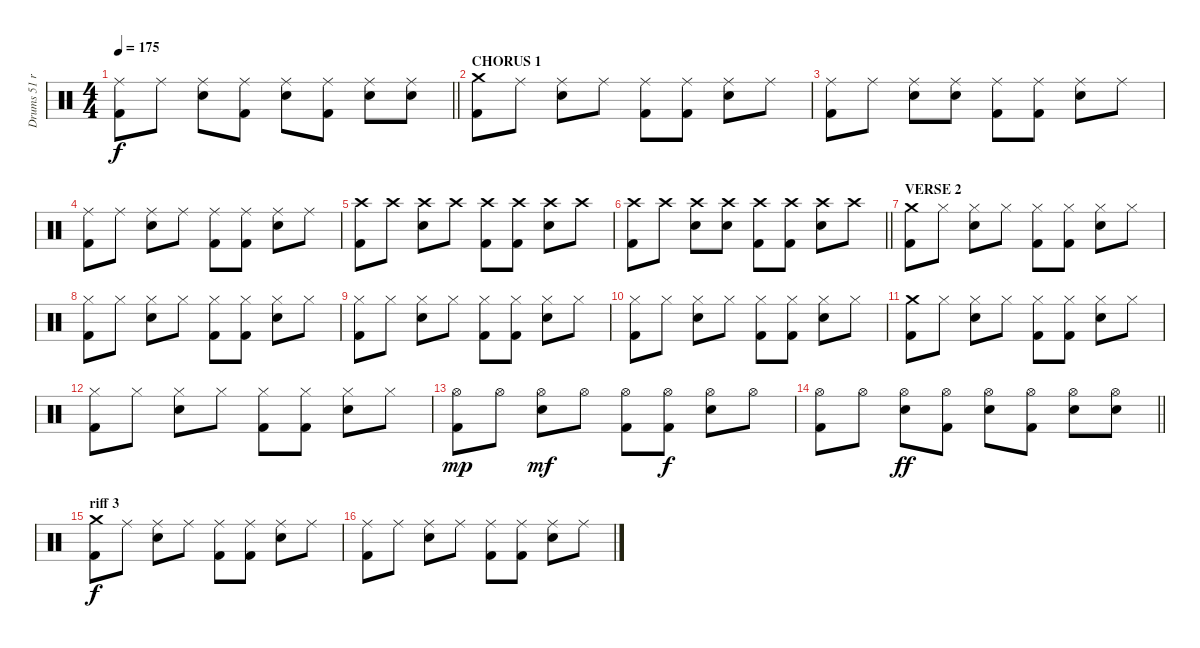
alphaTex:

\track ("Drums 51 ride" "Drums 51 r") {instrument percussion}
\staff {score}
\articulation defaults
\ts (4 4)
\tempo 175
\clef neutral
\barLineRight lightlight
\ks c
("Ride (middle)" "Kick (hit) 2").8{dy f} "Ride (middle)".8 ("Ride (middle)" "Snare (hit) 2").8 ("Ride (middle)" "Kick (hit) 2").8 ("Ride (middle)" "Snare (hit) 2").8 ("Ride (middle)" "Kick (hit) 2").8 ("Ride (middle)" "Snare (hit) 2").8 ("Ride (middle)" "Snare (hit) 2").8 |
\section ("" "CHORUS 1")
("Crash medium (hit)" "Kick (hit) 2").8 "Ride (middle)".8 ("Ride (middle)" "Snare (hit) 2").8 "Ride (middle)".8 ("Ride (middle)" "Kick (hit) 2").8 ("Ride (middle)" "Kick (hit) 2").8 ("Ride (middle)" "Snare (hit) 2").8 "Ride (middle)".8 |
("Ride (middle)" "Kick (hit) 2").8 "Ride (middle)".8 ("Ride (middle)" "Snare (hit) 2").8 ("Ride (middle)" "Snare (hit) 2").8 ("Ride (middle)" "Kick (hit) 2").8 ("Ride (middle)" "Kick (hit) 2").8 ("Ride (middle)" "Snare (hit) 2").8 "Ride (middle)".8 |
("Ride (middle)" "Kick (hit) 2").8 "Ride (middle)".8 ("Ride (middle)" "Snare (hit) 2").8 "Ride (middle)".8 ("Ride (middle)" "Kick (hit) 2").8 ("Ride (middle)" "Kick (hit) 2").8 ("Ride (middle)" "Snare (hit) 2").8 "Ride (middle)".8 |
("Crash high (hit)" "Kick (hit) 2").8 "Crash high (hit)".8 ("Crash high (hit)" "Snare (hit) 2").8 "Crash high (hit)".8 ("Crash high (hit)" "Kick (hit) 2").8 ("Crash high (hit)" "Kick (hit) 2").8 ("Crash high (hit)" "Snare (hit) 2").8 "Crash high (hit)".8 |
\barLineRight lightlight
("Crash high (hit)" "Kick (hit) 2").8 "Crash high (hit)".8 ("Crash high (hit)" "Snare (hit) 2").8 ("Crash high (hit)" "Snare (hit) 2").8 ("Crash high (hit)" "Kick (hit) 2").8 ("Crash high (hit)" "Kick (hit) 2").8 ("Crash high (hit)" "Snare (hit) 2").8 "Crash high (hit)".8 |
\section ("" "VERSE 2")
("Crash medium (hit)" "Kick (hit) 2").8 "Hi-Hat (closed)".8 ("Hi-Hat (closed)" "Snare (hit) 2").8 "Hi-Hat (closed)".8 ("Hi-Hat (closed)" "Kick (hit) 2").8 ("Hi-Hat (closed)" "Kick (hit) 2").8 ("Hi-Hat (closed)" "Snare (hit) 2").8 "Hi-Hat (closed)".8 |
("Hi-Hat (closed)" "Kick (hit) 2").8 "Hi-Hat (closed)".8 ("Hi-Hat (closed)" "Snare (hit) 2").8 "Hi-Hat (closed)".8 ("Hi-Hat (closed)" "Kick (hit) 2").8 ("Hi-Hat (closed)" "Kick (hit) 2").8 ("Hi-Hat (closed)" "Snare (hit) 2").8 "Hi-Hat (closed)".8 |
("Hi-Hat (closed)" "Kick (hit) 2").8 "Hi-Hat (closed)".8 ("Hi-Hat (closed)" "Snare (hit) 2").8 "Hi-Hat (closed)".8 ("Hi-Hat (closed)" "Kick (hit) 2").8 ("Hi-Hat (closed)" "Kick (hit) 2").8 ("Hi-Hat (closed)" "Snare (hit) 2").8 "Hi-Hat (closed)".8 |
("Hi-Hat (closed)" "Kick (hit) 2").8 "Hi-Hat (closed)".8 ("Hi-Hat (closed)" "Snare (hit) 2").8 "Hi-Hat (closed)".8 ("Hi-Hat (closed)" "Kick (hit) 2").8 ("Hi-Hat (closed)" "Kick (hit) 2").8 ("Hi-Hat (closed)" "Snare (hit) 2").8 "Hi-Hat (closed)".8 |
("Crash medium (hit)" "Kick (hit) 2").8 "Hi-Hat (closed)".8 ("Hi-Hat (closed)" "Snare (hit) 2").8 "Hi-Hat (closed)".8 ("Hi-Hat (closed)" "Kick (hit) 2").8 ("Hi-Hat (closed)" "Kick (hit) 2").8 ("Hi-Hat (closed)" "Snare (hit) 2").8 "Hi-Hat (closed)".8 |
("Hi-Hat (closed)" "Kick (hit) 2").8 "Hi-Hat (closed)".8 ("Hi-Hat (closed)" "Snare (hit) 2").8 "Hi-Hat (closed)".8 ("Hi-Hat (closed)" "Kick (hit) 2").8 ("Hi-Hat (closed)" "Kick (hit) 2").8 ("Hi-Hat (closed)" "Snare (hit) 2").8 "Hi-Hat (closed)".8 |
("Hi-Hat (open)" "Kick (hit) 2").8{dy mp} "Hi-Hat (open)".8 ("Hi-Hat (open)" "Snare (hit) 2").8{dy mf} "Hi-Hat (open)".8 ("Hi-Hat (open)" "Kick (hit) 2").8 ("Hi-Hat (open)" "Kick (hit) 2").8{dy f} ("Hi-Hat (open)" "Snare (hit) 2").8 "Hi-Hat (open)".8 |
\barLineRight lightlight
("Hi-Hat (open)" "Kick (hit) 2").8 "Hi-Hat (open)".8 ("Hi-Hat (open)" "Snare (hit) 2").8{dy ff} ("Hi-Hat (open)" "Kick (hit) 2").8 ("Hi-Hat (open)" "Snare (hit) 2").8 ("Hi-Hat (open)" "Kick (hit) 2").8 ("Hi-Hat (open)" "Snare (hit) 2").8 ("Hi-Hat (open)" "Snare (hit) 2").8 |
\section ("" "riff 3")
("Crash medium (hit)" "Kick (hit) 2").8{dy f} "Ride (middle)".8 ("Ride (middle)" "Snare (hit) 2").8 "Ride (middle)".8 ("Ride (middle)" "Kick (hit) 2").8 ("Ride (middle)" "Kick (hit) 2").8 ("Ride (middle)" "Snare (hit) 2").8 "Ride (middle)".8 |
("Ride (middle)" "Kick (hit) 2").8 "Ride (middle)".8 ("Ride (middle)" "Snare (hit) 2").8 "Ride (middle)".8 ("Ride (middle)" "Kick (hit) 2").8 ("Ride (middle)" "Kick (hit) 2").8 ("Ride (middle)" "Snare (hit) 2").8 "Ride (middle)".8
